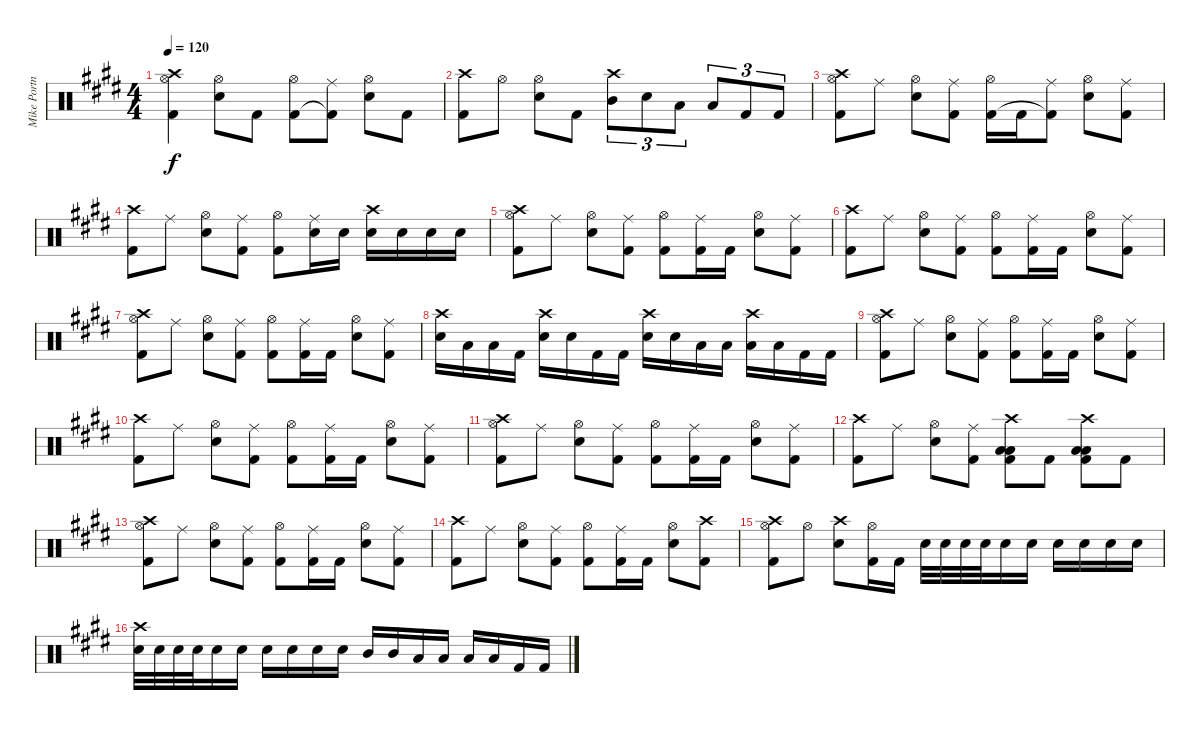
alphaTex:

\track ("Mike Portnoy Drums/Pecussion" "Mike Portn") {instrument percussion}
\staff {score}
\articulation defaults
\ts (4 4)
\tempo 120
\clef neutral
\ks e
("Crash high (hit)" "Hi-Hat (open)" "Kick (hit) 2").4{dy f} ("Hi-Hat (open)" "Snare (hit) 2").8 "Kick (hit) 2".8 ("Hi-Hat (open)" "Kick (hit) 2").8 ("Ride (middle)" "Kick (hit) 2"{t}).8 ("Hi-Hat (open)" "Snare (hit) 2").8 "Kick (hit) 2".8 |
("Crash high (hit)" "Kick (hit) 2").8 "Hi-Hat (open)".8 ("Hi-Hat (open)" "Snare (hit) 2").8 "Kick (hit) 2".8 ("Crash high (hit)" "Mid Tom (hit)").8{tu (3 2)} "Snare (hit) 2".8{tu (3 2)} "Low Tom (hit)".8{tu (3 2)} "Low Floor Tom (hit)".8{tu (3 2)} "Kick (hit) 2".8{tu (3 2)} "Kick (hit) 2".8{tu (3 2)} |
("Crash high (hit)" "Hi-Hat (open)" "Kick (hit) 2").8 "Ride (middle)".8 ("Hi-Hat (open)" "Snare (hit) 2").8 ("Ride (middle)" "Kick (hit) 2").8 ("Hi-Hat (open)" "Kick (hit) 2").16 "Kick (hit) 2".16 ("Ride (middle)" "Kick (hit) 2"{t}).8 ("Hi-Hat (open)" "Snare (hit) 2").8 ("Ride (middle)" "Kick (hit) 2").8 |
("Crash high (hit)" "Kick (hit) 2").8 "Ride (middle)".8 ("Hi-Hat (open)" "Snare (hit) 2").8 ("Ride (middle)" "Kick (hit) 2").8 ("Hi-Hat (open)" "Kick (hit) 2").8 ("Ride (middle)" "Snare (hit) 2").16 "Snare (hit) 2".16 ("Snare (hit) 2" "Crash high (hit)").16 "Snare (hit) 2".16 "Snare (hit) 2".16 "Snare (hit) 2".16 |
("Crash high (hit)" "Hi-Hat (open)" "Kick (hit) 2").8 "Ride (middle)".8 ("Hi-Hat (open)" "Snare (hit) 2").8 ("Ride (middle)" "Kick (hit) 2").8 ("Hi-Hat (open)" "Kick (hit) 2").8 ("Ride (middle)" "Kick (hit) 2").16 "Kick (hit) 2".16 ("Hi-Hat (open)" "Snare (hit) 2").8 ("Ride (middle)" "Kick (hit) 2").8 |
("Crash high (hit)" "Kick (hit) 2").8 "Ride (middle)".8 ("Hi-Hat (open)" "Snare (hit) 2").8 ("Ride (middle)" "Kick (hit) 2").8 ("Hi-Hat (open)" "Kick (hit) 2").8 ("Ride (middle)" "Kick (hit) 2").16 "Kick (hit) 2".16 ("Hi-Hat (open)" "Snare (hit) 2").8 ("Ride (middle)" "Kick (hit) 2").8 |
("Crash high (hit)" "Hi-Hat (open)" "Kick (hit) 2").8 "Ride (middle)".8 ("Hi-Hat (open)" "Snare (hit) 2").8 ("Ride (middle)" "Kick (hit) 2").8 ("Hi-Hat (open)" "Kick (hit) 2").8 ("Ride (middle)" "Kick (hit) 2").16 "Kick (hit) 2".16 ("Hi-Hat (open)" "Snare (hit) 2").8 ("Ride (middle)" "Kick (hit) 2").8 |
("Crash high (hit)" "Snare (hit) 2").16 "Low Tom (hit)".16 "Low Floor Tom (hit)".16 "Kick (hit) 2".16 ("Crash high (hit)" "Snare (hit) 2").16 "Snare (hit) 2".16 "Kick (hit) 2".16 "Kick (hit) 2".16 ("Crash high (hit)" "Snare (hit) 2").16 "Snare (hit) 2".16 "Low Tom (hit)".16 "Low Tom (hit)".16 ("Crash high (hit)" "Low Floor Tom (hit)").16 "Low Floor Tom (hit)".16 "Kick (hit) 2".16 "Kick (hit) 2".16 |
\section ("" "")
("Crash high (hit)" "Hi-Hat (open)" "Kick (hit) 2").8 "Ride (middle)".8 ("Hi-Hat (open)" "Snare (hit) 2").8 ("Ride (middle)" "Kick (hit) 2").8 ("Hi-Hat (open)" "Kick (hit) 2").8 ("Ride (middle)" "Kick (hit) 2").16 "Kick (hit) 2".16 ("Hi-Hat (open)" "Snare (hit) 2").8 ("Ride (middle)" "Kick (hit) 2").8 |
("Crash high (hit)" "Kick (hit) 2").8 "Ride (middle)".8 ("Hi-Hat (open)" "Snare (hit) 2").8 ("Ride (middle)" "Kick (hit) 2").8 ("Hi-Hat (open)" "Kick (hit) 2").8 ("Ride (middle)" "Kick (hit) 2").16 "Kick (hit) 2".16 ("Hi-Hat (open)" "Snare (hit) 2").8 ("Ride (middle)" "Kick (hit) 2").8 |
("Crash high (hit)" "Hi-Hat (open)" "Kick (hit) 2").8 "Ride (middle)".8 ("Hi-Hat (open)" "Snare (hit) 2").8 ("Ride (middle)" "Kick (hit) 2").8 ("Hi-Hat (open)" "Kick (hit) 2").8 ("Ride (middle)" "Kick (hit) 2").16 "Kick (hit) 2".16 ("Hi-Hat (open)" "Snare (hit) 2").8 ("Ride (middle)" "Kick (hit) 2").8 |
("Crash high (hit)" "Kick (hit) 2").8 "Ride (middle)".8 ("Hi-Hat (open)" "Snare (hit) 2").8 ("Ride (middle)" "Kick (hit) 2").8 ("Crash high (hit)" "Low Floor Tom (hit)" "Kick (hit) 2" "Low Tom (hit)").8 "Kick (hit) 2".8 ("Crash high (hit)" "Kick (hit) 2" "Low Floor Tom (hit)" "Low Tom (hit)").8 "Kick (hit) 2".8 |
("Crash high (hit)" "Hi-Hat (open)" "Kick (hit) 2").8 "Ride (middle)".8 ("Hi-Hat (open)" "Snare (hit) 2").8 ("Ride (middle)" "Kick (hit) 2").8 ("Hi-Hat (open)" "Kick (hit) 2").8 ("Ride (middle)" "Kick (hit) 2").16 "Kick (hit) 2".16 ("Hi-Hat (open)" "Snare (hit) 2").8 ("Ride (middle)" "Kick (hit) 2").8 |
("Crash high (hit)" "Kick (hit) 2").8 "Ride (middle)".8 ("Hi-Hat (open)" "Snare (hit) 2").8 ("Ride (middle)" "Kick (hit) 2").8 ("Hi-Hat (open)" "Kick (hit) 2").8 ("Ride (middle)" "Kick (hit) 2").16 "Kick (hit) 2".16 ("Hi-Hat (open)" "Snare (hit) 2").8 ("Crash high (hit)" "Kick (hit) 2").8 |
("Crash high (hit)" "Hi-Hat (open)" "Kick (hit) 2").8 "Hi-Hat (open)".8 ("Snare (hit) 2" "Crash high (hit)").8 ("Hi-Hat (open)" "Kick (hit) 2").16 "Kick (hit) 2".16 "Snare (hit) 2".32 "Snare (hit) 2".32 "Snare (hit) 2".32 "Snare (hit) 2".32 "Snare (hit) 2".16 "Snare (hit) 2".16 "Snare (hit) 2".16 "Snare (hit) 2".16 "Snare (hit) 2".16 "Snare (hit) 2".16 |
("Crash high (hit)" "Snare (hit) 2").32 "Snare (hit) 2".32 "Snare (hit) 2".32 "Snare (hit) 2".32 "Snare (hit) 2".16 "Snare (hit) 2".16 "Snare (hit) 2".16 "Snare (hit) 2".16 "Snare (hit) 2".16 "Snare (hit) 2".16 "Mid Tom (hit)".16 "Mid Tom (hit)".16 "Low Tom (hit)".16 "Low Tom (hit)".16 "Low Floor Tom (hit)".16 "Low Floor Tom (hit)".16 "Kick (hit) 2".16 "Kick (hit) 2".16
